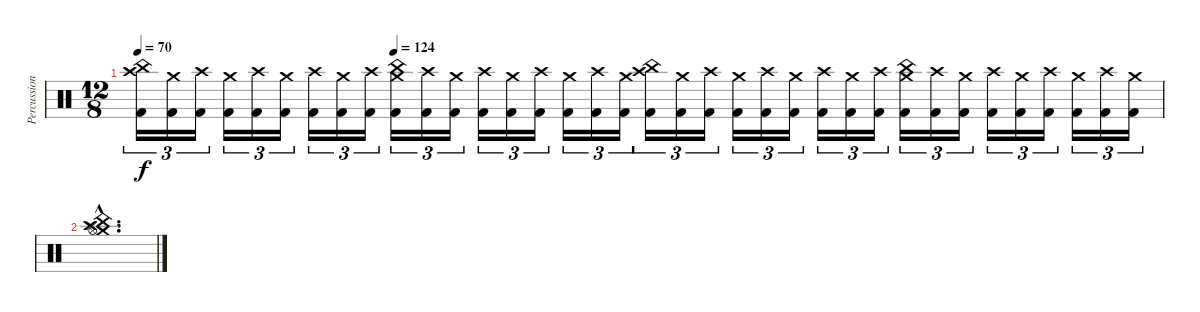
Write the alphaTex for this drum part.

\track ("Percussioni" "Percussion") {instrument percussion}
\staff {score}
\articulation defaults
\ts (12 8)
\tempo 70
\tempo (124 0.25)
\clef neutral
\ks c
("Crash high (hit)" "China (hit)" "Kick (hit) 2").16{tu (3 2) dy f} ("Crash medium (hit)" "Kick (hit) 2").16{tu (3 2)} ("Crash high (hit)" "Kick (hit) 2").16{tu (3 2)} ("Crash medium (hit)" "Kick (hit) 2").16{tu (3 2)} ("Crash high (hit)" "Kick (hit) 2").16{tu (3 2)} ("Crash medium (hit)" "Kick (hit) 2").16{tu (3 2)} ("Crash high (hit)" "Kick (hit) 2").16{tu (3 2)} ("Crash medium (hit)" "Kick (hit) 2").16{tu (3 2)} ("Crash high (hit)" "Kick (hit) 2").16{tu (3 2)} ("Crash medium (hit)" "China (hit)" "Kick (hit) 2").16{tu (3 2)} ("Crash high (hit)" "Kick (hit) 2").16{tu (3 2)} ("Crash medium (hit)" "Kick (hit) 2").16{tu (3 2)} ("Crash high (hit)" "Kick (hit) 2").16{tu (3 2)} ("Crash medium (hit)" "Kick (hit) 2").16{tu (3 2)} ("Crash high (hit)" "Kick (hit) 2").16{tu (3 2)} ("Crash medium (hit)" "Kick (hit) 2").16{tu (3 2)} ("Crash high (hit)" "Kick (hit) 2").16{tu (3 2)} ("Crash medium (hit)" "Kick (hit) 2").16{tu (3 2)} ("Crash high (hit)" "China (hit)" "Kick (hit) 2").16{tu (3 2)} ("Crash medium (hit)" "Kick (hit) 2").16{tu (3 2)} ("Crash high (hit)" "Kick (hit) 2").16{tu (3 2)} ("Crash medium (hit)" "Kick (hit) 2").16{tu (3 2)} ("Crash high (hit)" "Kick (hit) 2").16{tu (3 2)} ("Crash medium (hit)" "Kick (hit) 2").16{tu (3 2)} ("Crash high (hit)" "Kick (hit) 2").16{tu (3 2)} ("Crash medium (hit)" "Kick (hit) 2").16{tu (3 2)} ("Crash high (hit)" "Kick (hit) 2").16{tu (3 2)} ("Crash medium (hit)" "China (hit)" "Kick (hit) 2").16{tu (3 2)} ("Crash high (hit)" "Kick (hit) 2").16{tu (3 2)} ("Crash medium (hit)" "Kick (hit) 2").16{tu (3 2)} ("Crash high (hit)" "Kick (hit) 2").16{tu (3 2)} ("Crash medium (hit)" "Kick (hit) 2").16{tu (3 2)} ("Crash high (hit)" "Kick (hit) 2").16{tu (3 2)} ("Crash medium (hit)" "Kick (hit) 2").16{tu (3 2)} ("Crash high (hit)" "Kick (hit) 2").16{tu (3 2)} ("Crash medium (hit)" "Kick (hit) 2").16{tu (3 2)} |
("Crash high (hit)"{hac} "Crash medium (hit)"{hac} "China (hit)"{hac} "Splash (hit)"{hac} "Hi-Hat (open)"{hac}).1{d}
